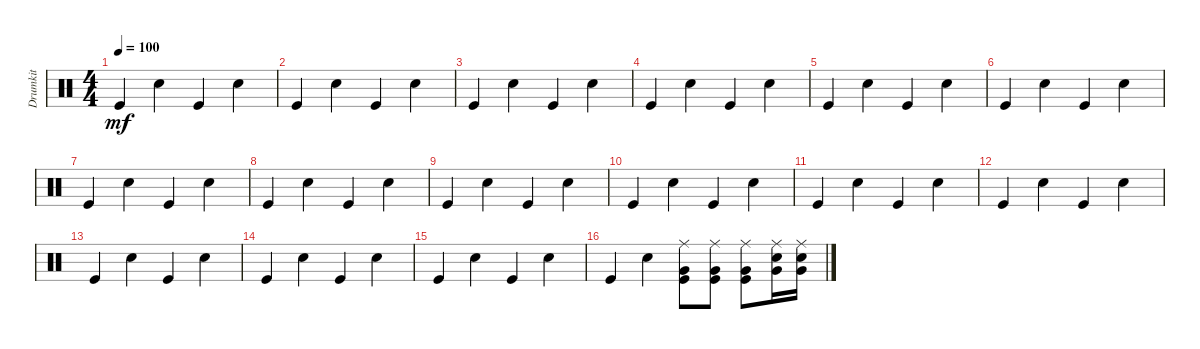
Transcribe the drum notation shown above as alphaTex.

\track ("Drumkit" "Drumkit") {instrument percussion}
\staff {score}
\articulation defaults
\ts (4 4)
\tempo 100
\clef neutral
\ks aminor "Kick (hit)".4{dy mf} "Electric Snare (hit)".4 "Kick (hit)".4 "Electric Snare (hit)".4
|
"Kick (hit)".4 "Electric Snare (hit)".4 "Kick (hit)".4 "Electric Snare (hit)".4 |
"Kick (hit)".4 "Electric Snare (hit)".4 "Kick (hit)".4 "Electric Snare (hit)".4 |
"Kick (hit)".4 "Electric Snare (hit)".4 "Kick (hit)".4 "Electric Snare (hit)".4 |
"Kick (hit)".4 "Electric Snare (hit)".4 "Kick (hit)".4 "Electric Snare (hit)".4 |
"Kick (hit)".4 "Electric Snare (hit)".4 "Kick (hit)".4 "Electric Snare (hit)".4 |
"Kick (hit)".4 "Electric Snare (hit)".4 "Kick (hit)".4 "Electric Snare (hit)".4 |
"Kick (hit)".4 "Electric Snare (hit)".4 "Kick (hit)".4 "Electric Snare (hit)".4 |
"Kick (hit)".4 "Electric Snare (hit)".4 "Kick (hit)".4 "Electric Snare (hit)".4 |
"Kick (hit)".4 "Electric Snare (hit)".4 "Kick (hit)".4 "Electric Snare (hit)".4 |
"Kick (hit)".4 "Electric Snare (hit)".4 "Kick (hit)".4 "Electric Snare (hit)".4 |
"Kick (hit)".4 "Electric Snare (hit)".4 "Kick (hit)".4 "Electric Snare (hit)".4 |
"Kick (hit)".4 "Electric Snare (hit)".4 "Kick (hit)".4 "Electric Snare (hit)".4 |
"Kick (hit)".4 "Electric Snare (hit)".4 "Kick (hit)".4 "Electric Snare (hit)".4 |
"Kick (hit)".4 "Electric Snare (hit)".4 "Kick (hit)".4 "Electric Snare (hit)".4 |
"Kick (hit)".4 "Electric Snare (hit)".4 ("Kick (hit)" "Very Low Tom (hit)" "Ride (middle)").8 ("Kick (hit)" "Very Low Tom (hit)" "Ride (middle)").8 ("Very Low Tom (hit)" "Kick (hit)" "Ride (middle)").8 ("Ride (middle)" "Electric Snare (hit)" "Very Low Tom (hit)").16 ("Ride (middle)" "Electric Snare (hit)" "Very Low Tom (hit)").16
